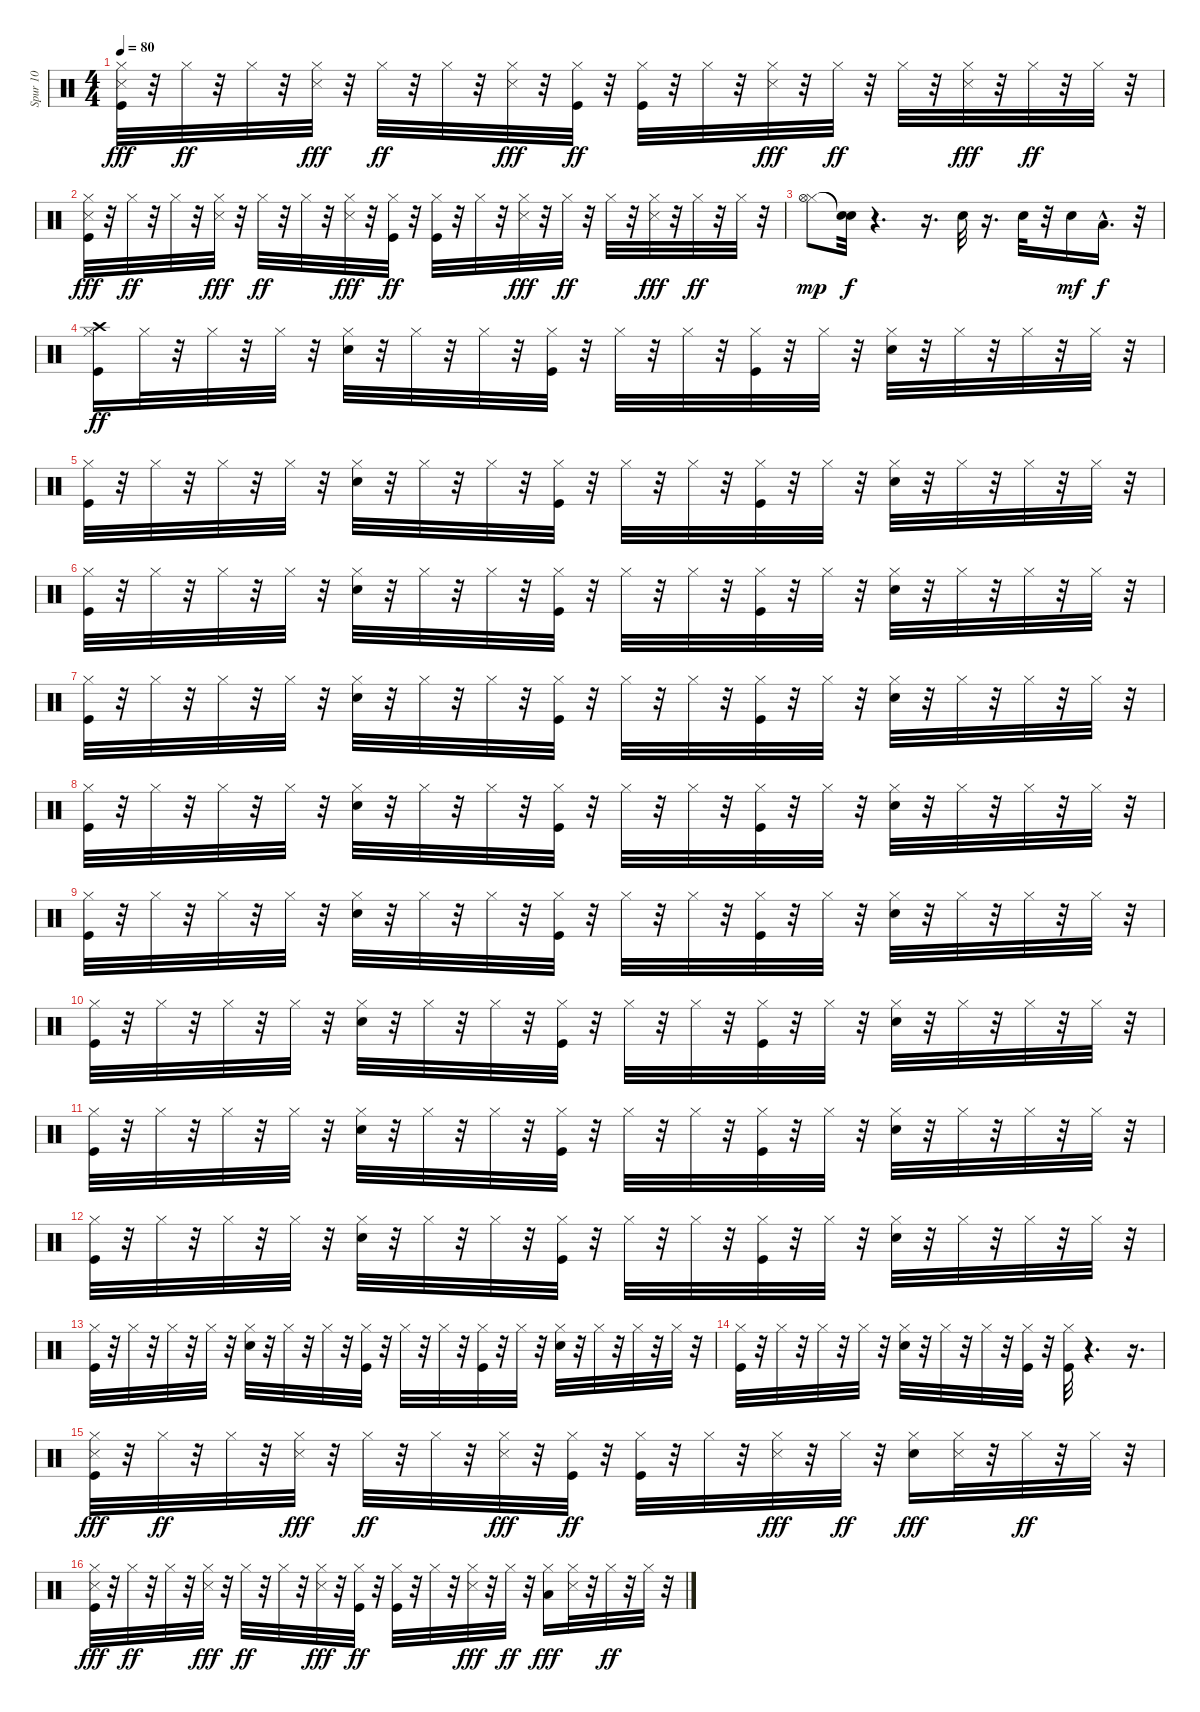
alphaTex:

\track ("Spur 10" "Spur 10") {instrument percussion}
\staff {score}
\articulation defaults
\ts (4 4)
\tempo 80
\clef neutral
\ks c
("Kick (hit)" "Hi-Hat (closed)" "Snare (side stick) 3").32{dy fff} r.32 "Hi-Hat (closed)".32{dy ff} r.32 "Hi-Hat (closed)".32 r.32 ("Hi-Hat (closed)" "Snare (side stick) 3").32{dy fff} r.32 "Hi-Hat (closed)".32{dy ff} r.32 "Hi-Hat (closed)".32 r.32 ("Hi-Hat (closed)" "Snare (side stick) 3").32{dy fff} r.32 ("Kick (hit)" "Hi-Hat (closed)").32{dy ff} r.32 ("Kick (hit)" "Hi-Hat (closed)").32 r.32 "Hi-Hat (closed)".32 r.32 ("Hi-Hat (closed)" "Snare (side stick) 3").32{dy fff} r.32 "Hi-Hat (closed)".32{dy ff} r.32 "Hi-Hat (closed)".32 r.32 ("Hi-Hat (closed)" "Snare (side stick) 3").32{dy fff} r.32 "Hi-Hat (closed)".32{dy ff} r.32 "Hi-Hat (closed)".32 r.32 |
("Kick (hit)" "Hi-Hat (closed)" "Snare (side stick) 3").32{dy fff} r.32 "Hi-Hat (closed)".32{dy ff} r.32 "Hi-Hat (closed)".32 r.32 ("Hi-Hat (closed)" "Snare (side stick) 3").32{dy fff} r.32 "Hi-Hat (closed)".32{dy ff} r.32 "Hi-Hat (closed)".32 r.32 ("Hi-Hat (closed)" "Snare (side stick) 3").32{dy fff} r.32 ("Kick (hit)" "Hi-Hat (closed)").32{dy ff} r.32 ("Kick (hit)" "Hi-Hat (closed)").32 r.32 "Hi-Hat (closed)".32 r.32 ("Hi-Hat (closed)" "Snare (side stick) 3").32{dy fff} r.32 "Hi-Hat (closed)".32{dy ff} r.32 "Hi-Hat (closed)".32 r.32 ("Hi-Hat (closed)" "Snare (side stick) 3").32{dy fff} r.32 "Hi-Hat (closed)".32{dy ff} r.32 "Hi-Hat (closed)".32 r.32 |
("Hi-Hat (closed)" "Hi-Hat (open)").8{dy mp} ("Snare (hit)"{t} "Snare (hit)"{t}).32{dy f} r.4{d} r.16{d} "Snare (hit) 2".32 r.16{d} "Snare (hit) 2".32 r.32 "Snare (hit) 2".16{dy mf} "Low Floor Tom (hit)"{hac}.16{d dy f} r.32 |
("Kick (hit)" "Hi-Hat (closed)" "Crash high (hit)").16{dy ff} "Hi-Hat (closed)".32 r.32 "Hi-Hat (closed)".32 r.32 "Hi-Hat (closed)".32 r.32 ("Snare (hit) 2" "Hi-Hat (closed)").32 r.32 "Hi-Hat (closed)".32 r.32 "Hi-Hat (closed)".32 r.32 ("Kick (hit)" "Hi-Hat (closed)").32 r.32 "Hi-Hat (closed)".32 r.32 "Hi-Hat (closed)".32 r.32 ("Kick (hit)" "Hi-Hat (closed)").32 r.32 "Hi-Hat (closed)".32 r.32 ("Snare (hit) 2" "Hi-Hat (closed)").32 r.32 "Hi-Hat (closed)".32 r.32 "Hi-Hat (closed)".32 r.32 "Hi-Hat (closed)".32 r.32 |
("Kick (hit)" "Hi-Hat (closed)").32 r.32 "Hi-Hat (closed)".32 r.32 "Hi-Hat (closed)".32 r.32 "Hi-Hat (closed)".32 r.32 ("Snare (hit) 2" "Hi-Hat (closed)").32 r.32 "Hi-Hat (closed)".32 r.32 "Hi-Hat (closed)".32 r.32 ("Kick (hit)" "Hi-Hat (closed)").32 r.32 "Hi-Hat (closed)".32 r.32 "Hi-Hat (closed)".32 r.32 ("Kick (hit)" "Hi-Hat (closed)").32 r.32 "Hi-Hat (closed)".32 r.32 ("Snare (hit) 2" "Hi-Hat (closed)").32 r.32 "Hi-Hat (closed)".32 r.32 "Hi-Hat (closed)".32 r.32 "Hi-Hat (closed)".32 r.32 |
("Kick (hit)" "Hi-Hat (closed)").32 r.32 "Hi-Hat (closed)".32 r.32 "Hi-Hat (closed)".32 r.32 "Hi-Hat (closed)".32 r.32 ("Snare (hit) 2" "Hi-Hat (closed)").32 r.32 "Hi-Hat (closed)".32 r.32 "Hi-Hat (closed)".32 r.32 ("Kick (hit)" "Hi-Hat (closed)").32 r.32 "Hi-Hat (closed)".32 r.32 "Hi-Hat (closed)".32 r.32 ("Kick (hit)" "Hi-Hat (closed)").32 r.32 "Hi-Hat (closed)".32 r.32 ("Snare (hit) 2" "Hi-Hat (closed)").32 r.32 "Hi-Hat (closed)".32 r.32 "Hi-Hat (closed)".32 r.32 "Hi-Hat (closed)".32 r.32 |
("Kick (hit)" "Hi-Hat (closed)").32 r.32 "Hi-Hat (closed)".32 r.32 "Hi-Hat (closed)".32 r.32 "Hi-Hat (closed)".32 r.32 ("Snare (hit) 2" "Hi-Hat (closed)").32 r.32 "Hi-Hat (closed)".32 r.32 "Hi-Hat (closed)".32 r.32 ("Kick (hit)" "Hi-Hat (closed)").32 r.32 "Hi-Hat (closed)".32 r.32 "Hi-Hat (closed)".32 r.32 ("Kick (hit)" "Hi-Hat (closed)").32 r.32 "Hi-Hat (closed)".32 r.32 ("Snare (hit) 2" "Hi-Hat (closed)").32 r.32 "Hi-Hat (closed)".32 r.32 "Hi-Hat (closed)".32 r.32 "Hi-Hat (closed)".32 r.32 |
("Kick (hit)" "Hi-Hat (closed)").32 r.32 "Hi-Hat (closed)".32 r.32 "Hi-Hat (closed)".32 r.32 "Hi-Hat (closed)".32 r.32 ("Snare (hit) 2" "Hi-Hat (closed)").32 r.32 "Hi-Hat (closed)".32 r.32 "Hi-Hat (closed)".32 r.32 ("Kick (hit)" "Hi-Hat (closed)").32 r.32 "Hi-Hat (closed)".32 r.32 "Hi-Hat (closed)".32 r.32 ("Kick (hit)" "Hi-Hat (closed)").32 r.32 "Hi-Hat (closed)".32 r.32 ("Snare (hit) 2" "Hi-Hat (closed)").32 r.32 "Hi-Hat (closed)".32 r.32 "Hi-Hat (closed)".32 r.32 "Hi-Hat (closed)".32 r.32 |
("Kick (hit)" "Hi-Hat (closed)").32 r.32 "Hi-Hat (closed)".32 r.32 "Hi-Hat (closed)".32 r.32 "Hi-Hat (closed)".32 r.32 ("Snare (hit) 2" "Hi-Hat (closed)").32 r.32 "Hi-Hat (closed)".32 r.32 "Hi-Hat (closed)".32 r.32 ("Kick (hit)" "Hi-Hat (closed)").32 r.32 "Hi-Hat (closed)".32 r.32 "Hi-Hat (closed)".32 r.32 ("Kick (hit)" "Hi-Hat (closed)").32 r.32 "Hi-Hat (closed)".32 r.32 ("Snare (hit) 2" "Hi-Hat (closed)").32 r.32 "Hi-Hat (closed)".32 r.32 "Hi-Hat (closed)".32 r.32 "Hi-Hat (closed)".32 r.32 |
("Kick (hit)" "Hi-Hat (closed)").32 r.32 "Hi-Hat (closed)".32 r.32 "Hi-Hat (closed)".32 r.32 "Hi-Hat (closed)".32 r.32 ("Snare (hit) 2" "Hi-Hat (closed)").32 r.32 "Hi-Hat (closed)".32 r.32 "Hi-Hat (closed)".32 r.32 ("Kick (hit)" "Hi-Hat (closed)").32 r.32 "Hi-Hat (closed)".32 r.32 "Hi-Hat (closed)".32 r.32 ("Kick (hit)" "Hi-Hat (closed)").32 r.32 "Hi-Hat (closed)".32 r.32 ("Snare (hit) 2" "Hi-Hat (closed)").32 r.32 "Hi-Hat (closed)".32 r.32 "Hi-Hat (closed)".32 r.32 "Hi-Hat (closed)".32 r.32 |
("Kick (hit)" "Hi-Hat (closed)").32 r.32 "Hi-Hat (closed)".32 r.32 "Hi-Hat (closed)".32 r.32 "Hi-Hat (closed)".32 r.32 ("Snare (hit) 2" "Hi-Hat (closed)").32 r.32 "Hi-Hat (closed)".32 r.32 "Hi-Hat (closed)".32 r.32 ("Kick (hit)" "Hi-Hat (closed)").32 r.32 "Hi-Hat (closed)".32 r.32 "Hi-Hat (closed)".32 r.32 ("Kick (hit)" "Hi-Hat (closed)").32 r.32 "Hi-Hat (closed)".32 r.32 ("Snare (hit) 2" "Hi-Hat (closed)").32 r.32 "Hi-Hat (closed)".32 r.32 "Hi-Hat (closed)".32 r.32 "Hi-Hat (closed)".32 r.32 |
("Kick (hit)" "Hi-Hat (closed)").32 r.32 "Hi-Hat (closed)".32 r.32 "Hi-Hat (closed)".32 r.32 "Hi-Hat (closed)".32 r.32 ("Snare (hit) 2" "Hi-Hat (closed)").32 r.32 "Hi-Hat (closed)".32 r.32 "Hi-Hat (closed)".32 r.32 ("Kick (hit)" "Hi-Hat (closed)").32 r.32 "Hi-Hat (closed)".32 r.32 "Hi-Hat (closed)".32 r.32 ("Kick (hit)" "Hi-Hat (closed)").32 r.32 "Hi-Hat (closed)".32 r.32 ("Snare (hit) 2" "Hi-Hat (closed)").32 r.32 "Hi-Hat (closed)".32 r.32 "Hi-Hat (closed)".32 r.32 "Hi-Hat (closed)".32 r.32 |
("Kick (hit)" "Hi-Hat (closed)").32 r.32 "Hi-Hat (closed)".32 r.32 "Hi-Hat (closed)".32 r.32 "Hi-Hat (closed)".32 r.32 ("Snare (hit) 2" "Hi-Hat (closed)").32 r.32 "Hi-Hat (closed)".32 r.32 "Hi-Hat (closed)".32 r.32 ("Kick (hit)" "Hi-Hat (closed)").32 r.32 "Hi-Hat (closed)".32 r.32 "Hi-Hat (closed)".32 r.32 ("Kick (hit)" "Hi-Hat (closed)").32 r.32 "Hi-Hat (closed)".32 r.32 ("Snare (hit) 2" "Hi-Hat (closed)").32 r.32 "Hi-Hat (closed)".32 r.32 "Hi-Hat (closed)".32 r.32 "Hi-Hat (closed)".32 r.32 |
("Kick (hit)" "Hi-Hat (closed)").32 r.32 "Hi-Hat (closed)".32 r.32 "Hi-Hat (closed)".32 r.32 "Hi-Hat (closed)".32 r.32 ("Snare (hit) 2" "Hi-Hat (closed)").32 r.32 "Hi-Hat (closed)".32 r.32 "Hi-Hat (closed)".32 r.32 ("Kick (hit)" "Hi-Hat (closed)").32 r.32 ("Kick (hit)" "Hi-Hat (closed)").32 r.4{d} r.16{d} |
("Kick (hit)" "Hi-Hat (closed)" "Snare (side stick) 3").32{dy fff} r.32 "Hi-Hat (closed)".32{dy ff} r.32 "Hi-Hat (closed)".32 r.32 ("Hi-Hat (closed)" "Snare (side stick) 3").32{dy fff} r.32 "Hi-Hat (closed)".32{dy ff} r.32 "Hi-Hat (closed)".32 r.32 ("Hi-Hat (closed)" "Snare (side stick) 3").32{dy fff} r.32 ("Kick (hit)" "Hi-Hat (closed)").32{dy ff} r.32 ("Kick (hit)" "Hi-Hat (closed)").32 r.32 "Hi-Hat (closed)".32 r.32 ("Hi-Hat (closed)" "Snare (side stick) 3").32{dy fff} r.32 "Hi-Hat (closed)".32{dy ff} r.32 ("Hi-Hat (closed)" "Snare (hit) 2").16{dy fff} ("Hi-Hat (closed)" "Snare (side stick) 3").32 r.32 "Hi-Hat (closed)".32{dy ff} r.32 "Hi-Hat (closed)".32 r.32 |
("Kick (hit)" "Hi-Hat (closed)" "Snare (side stick) 3").32{dy fff} r.32 "Hi-Hat (closed)".32{dy ff} r.32 "Hi-Hat (closed)".32 r.32 ("Hi-Hat (closed)" "Snare (side stick) 3").32{dy fff} r.32 "Hi-Hat (closed)".32{dy ff} r.32 "Hi-Hat (closed)".32 r.32 ("Hi-Hat (closed)" "Snare (side stick) 3").32{dy fff} r.32 ("Kick (hit)" "Hi-Hat (closed)").32{dy ff} r.32 ("Kick (hit)" "Hi-Hat (closed)").32 r.32 "Hi-Hat (closed)".32 r.32 ("Hi-Hat (closed)" "Snare (side stick) 3").32{dy fff} r.32 "Hi-Hat (closed)".32{dy ff} r.32 ("Hi-Hat (closed)" "Low Floor Tom (hit)").16{dy fff} ("Hi-Hat (closed)" "Snare (side stick) 3").32 r.32 "Hi-Hat (closed)".32{dy ff} r.32 "Hi-Hat (closed)".32 r.32
